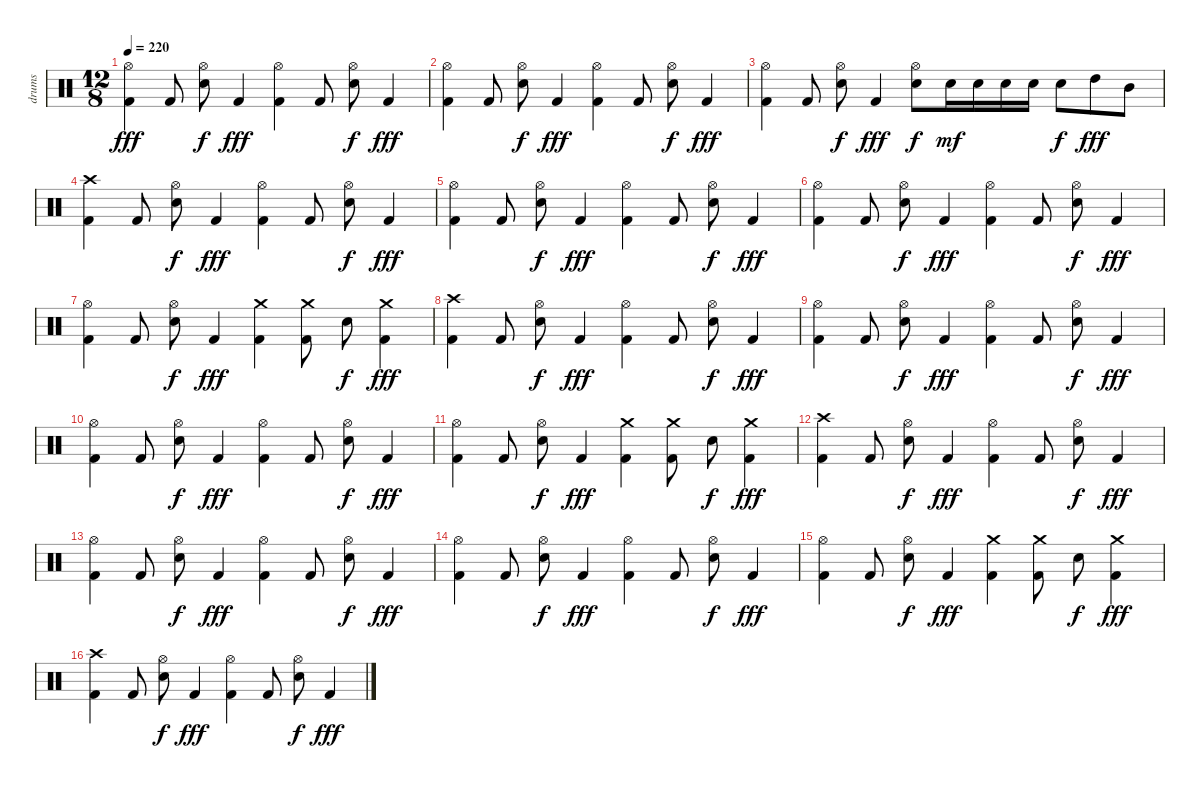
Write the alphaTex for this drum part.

\track ("drums" "drums") {instrument percussion}
\staff {score}
\articulation defaults
\ts (12 8)
\tempo 220
\clef neutral
\ks c
("Hi-Hat (open)" "Kick (hit) 2").4{dy fff} "Kick (hit) 2".8 ("Hi-Hat (open)" "Snare (hit) 2").8{dy f} "Kick (hit) 2".4{dy fff} ("Hi-Hat (open)" "Kick (hit) 2").4 "Kick (hit) 2".8 ("Hi-Hat (open)" "Snare (hit) 2").8{dy f} "Kick (hit) 2".4{dy fff} |
("Hi-Hat (open)" "Kick (hit) 2").4 "Kick (hit) 2".8 ("Hi-Hat (open)" "Snare (hit) 2").8{dy f} "Kick (hit) 2".4{dy fff} ("Hi-Hat (open)" "Kick (hit) 2").4 "Kick (hit) 2".8 ("Hi-Hat (open)" "Snare (hit) 2").8{dy f} "Kick (hit) 2".4{dy fff} |
("Hi-Hat (open)" "Kick (hit) 2").4 "Kick (hit) 2".8 ("Hi-Hat (open)" "Snare (hit) 2").8{dy f} "Kick (hit) 2".4{dy fff} ("Hi-Hat (open)" "Snare (hit) 2").8{dy f} "Snare (hit) 2".16{dy mf} "Snare (hit) 2".16 "Snare (hit) 2".16 "Snare (hit) 2".16 "Snare (hit) 2".8{dy f} "High Tom (hit)".8{dy fff} "Mid Tom (hit)".8 |
("Crash high (hit)" "Kick (hit) 2").4 "Kick (hit) 2".8 ("Hi-Hat (open)" "Snare (hit) 2").8{dy f} "Kick (hit) 2".4{dy fff} ("Hi-Hat (open)" "Kick (hit) 2").4 "Kick (hit) 2".8 ("Hi-Hat (open)" "Snare (hit) 2").8{dy f} "Kick (hit) 2".4{dy fff} |
("Hi-Hat (open)" "Kick (hit) 2").4 "Kick (hit) 2".8 ("Hi-Hat (open)" "Snare (hit) 2").8{dy f} "Kick (hit) 2".4{dy fff} ("Hi-Hat (open)" "Kick (hit) 2").4 "Kick (hit) 2".8 ("Hi-Hat (open)" "Snare (hit) 2").8{dy f} "Kick (hit) 2".4{dy fff} |
("Hi-Hat (open)" "Kick (hit) 2").4 "Kick (hit) 2".8 ("Hi-Hat (open)" "Snare (hit) 2").8{dy f} "Kick (hit) 2".4{dy fff} ("Hi-Hat (open)" "Kick (hit) 2").4 "Kick (hit) 2".8 ("Hi-Hat (open)" "Snare (hit) 2").8{dy f} "Kick (hit) 2".4{dy fff} |
("Hi-Hat (open)" "Kick (hit) 2").4 "Kick (hit) 2".8 ("Hi-Hat (open)" "Snare (hit) 2").8{dy f} "Kick (hit) 2".4{dy fff} ("Crash medium (hit)" "Kick (hit) 2").4 ("Crash medium (hit)" "Kick (hit) 2").8 "Snare (hit) 2".8{dy f} ("Crash medium (hit)" "Kick (hit) 2").4{dy fff} |
("Crash high (hit)" "Kick (hit) 2").4 "Kick (hit) 2".8 ("Hi-Hat (open)" "Snare (hit) 2").8{dy f} "Kick (hit) 2".4{dy fff} ("Hi-Hat (open)" "Kick (hit) 2").4 "Kick (hit) 2".8 ("Hi-Hat (open)" "Snare (hit) 2").8{dy f} "Kick (hit) 2".4{dy fff} |
("Hi-Hat (open)" "Kick (hit) 2").4 "Kick (hit) 2".8 ("Hi-Hat (open)" "Snare (hit) 2").8{dy f} "Kick (hit) 2".4{dy fff} ("Hi-Hat (open)" "Kick (hit) 2").4 "Kick (hit) 2".8 ("Hi-Hat (open)" "Snare (hit) 2").8{dy f} "Kick (hit) 2".4{dy fff} |
("Hi-Hat (open)" "Kick (hit) 2").4 "Kick (hit) 2".8 ("Hi-Hat (open)" "Snare (hit) 2").8{dy f} "Kick (hit) 2".4{dy fff} ("Hi-Hat (open)" "Kick (hit) 2").4 "Kick (hit) 2".8 ("Hi-Hat (open)" "Snare (hit) 2").8{dy f} "Kick (hit) 2".4{dy fff} |
("Hi-Hat (open)" "Kick (hit) 2").4 "Kick (hit) 2".8 ("Hi-Hat (open)" "Snare (hit) 2").8{dy f} "Kick (hit) 2".4{dy fff} ("Crash medium (hit)" "Kick (hit) 2").4 ("Crash medium (hit)" "Kick (hit) 2").8 "Snare (hit) 2".8{dy f} ("Crash medium (hit)" "Kick (hit) 2").4{dy fff} |
("Crash high (hit)" "Kick (hit) 2").4 "Kick (hit) 2".8 ("Hi-Hat (open)" "Snare (hit) 2").8{dy f} "Kick (hit) 2".4{dy fff} ("Hi-Hat (open)" "Kick (hit) 2").4 "Kick (hit) 2".8 ("Hi-Hat (open)" "Snare (hit) 2").8{dy f} "Kick (hit) 2".4{dy fff} |
("Hi-Hat (open)" "Kick (hit) 2").4 "Kick (hit) 2".8 ("Hi-Hat (open)" "Snare (hit) 2").8{dy f} "Kick (hit) 2".4{dy fff} ("Hi-Hat (open)" "Kick (hit) 2").4 "Kick (hit) 2".8 ("Hi-Hat (open)" "Snare (hit) 2").8{dy f} "Kick (hit) 2".4{dy fff} |
("Hi-Hat (open)" "Kick (hit) 2").4 "Kick (hit) 2".8 ("Hi-Hat (open)" "Snare (hit) 2").8{dy f} "Kick (hit) 2".4{dy fff} ("Hi-Hat (open)" "Kick (hit) 2").4 "Kick (hit) 2".8 ("Hi-Hat (open)" "Snare (hit) 2").8{dy f} "Kick (hit) 2".4{dy fff} |
("Hi-Hat (open)" "Kick (hit) 2").4 "Kick (hit) 2".8 ("Hi-Hat (open)" "Snare (hit) 2").8{dy f} "Kick (hit) 2".4{dy fff} ("Crash medium (hit)" "Kick (hit) 2").4 ("Crash medium (hit)" "Kick (hit) 2").8 "Snare (hit) 2".8{dy f} ("Crash medium (hit)" "Kick (hit) 2").4{dy fff} |
("Crash high (hit)" "Kick (hit) 2").4 "Kick (hit) 2".8 ("Hi-Hat (open)" "Snare (hit) 2").8{dy f} "Kick (hit) 2".4{dy fff} ("Hi-Hat (open)" "Kick (hit) 2").4 "Kick (hit) 2".8 ("Hi-Hat (open)" "Snare (hit) 2").8{dy f} "Kick (hit) 2".4{dy fff}
